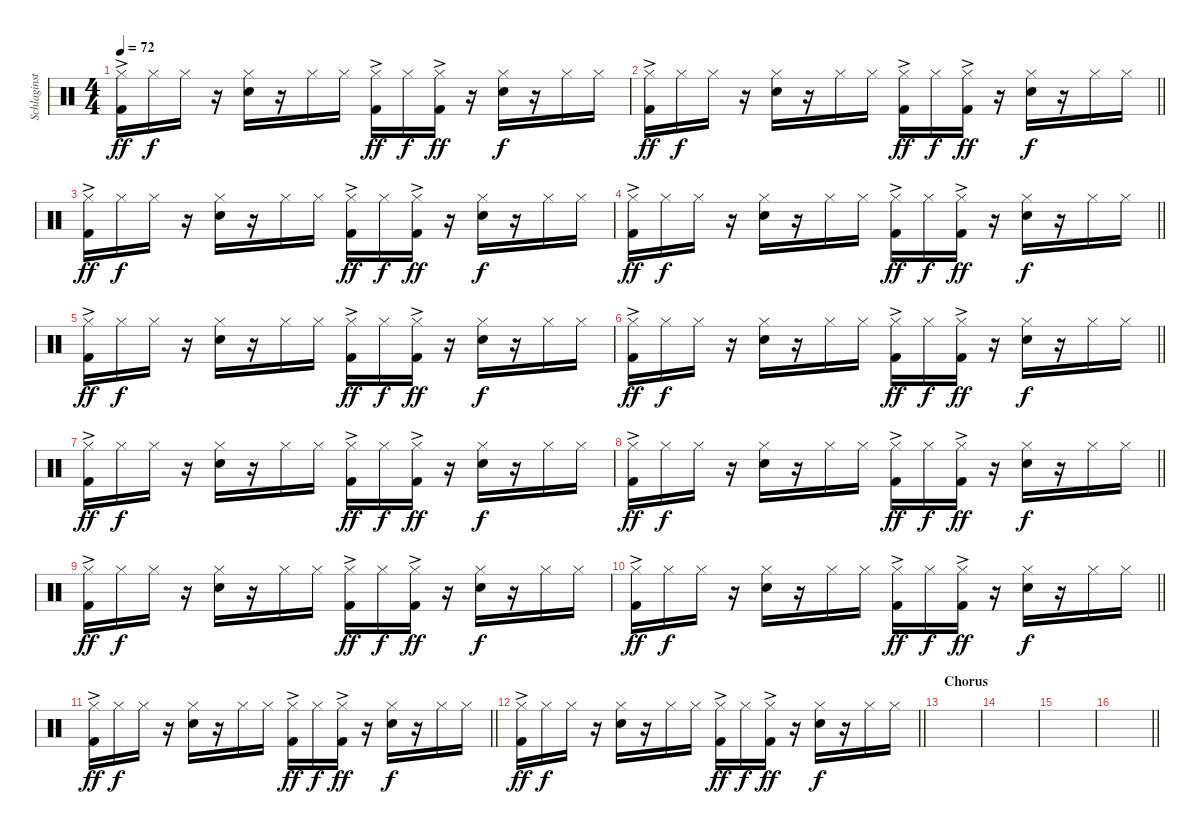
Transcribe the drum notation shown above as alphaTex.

\track ("Schlaginstrumente - Auswahl" "Schlaginst") {instrument percussion}
\staff {score}
\articulation defaults
\ts (4 4)
\tempo 72
\clef neutral
\ks c
("Hi-Hat (closed)" "Kick (hit) 2"{ac}).16{dy ff} "Hi-Hat (closed)".16{dy f} "Hi-Hat (closed)".16 r.16 ("Snare (hit) 2" "Hi-Hat (closed)").16 r.16 "Hi-Hat (closed)".16 "Hi-Hat (closed)".16 ("Hi-Hat (closed)" "Kick (hit) 2"{ac}).16{dy ff} "Hi-Hat (closed)".16{dy f} ("Hi-Hat (closed)" "Kick (hit) 2"{ac}).16{dy ff} r.16 ("Snare (hit) 2" "Hi-Hat (closed)").16{dy f} r.16 "Hi-Hat (closed)".16 "Hi-Hat (closed)".16 |
\barLineRight lightlight
("Hi-Hat (closed)" "Kick (hit) 2"{ac}).16{dy ff} "Hi-Hat (closed)".16{dy f} "Hi-Hat (closed)".16 r.16 ("Snare (hit) 2" "Hi-Hat (closed)").16 r.16 "Hi-Hat (closed)".16 "Hi-Hat (closed)".16 ("Hi-Hat (closed)" "Kick (hit) 2"{ac}).16{dy ff} "Hi-Hat (closed)".16{dy f} ("Hi-Hat (closed)" "Kick (hit) 2"{ac}).16{dy ff} r.16 ("Snare (hit) 2" "Hi-Hat (closed)").16{dy f} r.16 "Hi-Hat (closed)".16 "Hi-Hat (closed)".16 |
("Hi-Hat (closed)" "Kick (hit) 2"{ac}).16{dy ff} "Hi-Hat (closed)".16{dy f} "Hi-Hat (closed)".16 r.16 ("Snare (hit) 2" "Hi-Hat (closed)").16 r.16 "Hi-Hat (closed)".16 "Hi-Hat (closed)".16 ("Hi-Hat (closed)" "Kick (hit) 2"{ac}).16{dy ff} "Hi-Hat (closed)".16{dy f} ("Hi-Hat (closed)" "Kick (hit) 2"{ac}).16{dy ff} r.16 ("Snare (hit) 2" "Hi-Hat (closed)").16{dy f} r.16 "Hi-Hat (closed)".16 "Hi-Hat (closed)".16 |
\barLineRight lightlight
("Hi-Hat (closed)" "Kick (hit) 2"{ac}).16{dy ff} "Hi-Hat (closed)".16{dy f} "Hi-Hat (closed)".16 r.16 ("Snare (hit) 2" "Hi-Hat (closed)").16 r.16 "Hi-Hat (closed)".16 "Hi-Hat (closed)".16 ("Hi-Hat (closed)" "Kick (hit) 2"{ac}).16{dy ff} "Hi-Hat (closed)".16{dy f} ("Hi-Hat (closed)" "Kick (hit) 2"{ac}).16{dy ff} r.16 ("Snare (hit) 2" "Hi-Hat (closed)").16{dy f} r.16 "Hi-Hat (closed)".16 "Hi-Hat (closed)".16 |
("Hi-Hat (closed)" "Kick (hit) 2"{ac}).16{dy ff} "Hi-Hat (closed)".16{dy f} "Hi-Hat (closed)".16 r.16 ("Snare (hit) 2" "Hi-Hat (closed)").16 r.16 "Hi-Hat (closed)".16 "Hi-Hat (closed)".16 ("Hi-Hat (closed)" "Kick (hit) 2"{ac}).16{dy ff} "Hi-Hat (closed)".16{dy f} ("Hi-Hat (closed)" "Kick (hit) 2"{ac}).16{dy ff} r.16 ("Snare (hit) 2" "Hi-Hat (closed)").16{dy f} r.16 "Hi-Hat (closed)".16 "Hi-Hat (closed)".16 |
\barLineRight lightlight
("Hi-Hat (closed)" "Kick (hit) 2"{ac}).16{dy ff} "Hi-Hat (closed)".16{dy f} "Hi-Hat (closed)".16 r.16 ("Snare (hit) 2" "Hi-Hat (closed)").16 r.16 "Hi-Hat (closed)".16 "Hi-Hat (closed)".16 ("Hi-Hat (closed)" "Kick (hit) 2"{ac}).16{dy ff} "Hi-Hat (closed)".16{dy f} ("Hi-Hat (closed)" "Kick (hit) 2"{ac}).16{dy ff} r.16 ("Snare (hit) 2" "Hi-Hat (closed)").16{dy f} r.16 "Hi-Hat (closed)".16 "Hi-Hat (closed)".16 |
("Hi-Hat (closed)" "Kick (hit) 2"{ac}).16{dy ff} "Hi-Hat (closed)".16{dy f} "Hi-Hat (closed)".16 r.16 ("Snare (hit) 2" "Hi-Hat (closed)").16 r.16 "Hi-Hat (closed)".16 "Hi-Hat (closed)".16 ("Hi-Hat (closed)" "Kick (hit) 2"{ac}).16{dy ff} "Hi-Hat (closed)".16{dy f} ("Hi-Hat (closed)" "Kick (hit) 2"{ac}).16{dy ff} r.16 ("Snare (hit) 2" "Hi-Hat (closed)").16{dy f} r.16 "Hi-Hat (closed)".16 "Hi-Hat (closed)".16 |
\barLineRight lightlight
("Hi-Hat (closed)" "Kick (hit) 2"{ac}).16{dy ff} "Hi-Hat (closed)".16{dy f} "Hi-Hat (closed)".16 r.16 ("Snare (hit) 2" "Hi-Hat (closed)").16 r.16 "Hi-Hat (closed)".16 "Hi-Hat (closed)".16 ("Hi-Hat (closed)" "Kick (hit) 2"{ac}).16{dy ff} "Hi-Hat (closed)".16{dy f} ("Hi-Hat (closed)" "Kick (hit) 2"{ac}).16{dy ff} r.16 ("Snare (hit) 2" "Hi-Hat (closed)").16{dy f} r.16 "Hi-Hat (closed)".16 "Hi-Hat (closed)".16 |
("Hi-Hat (closed)" "Kick (hit) 2"{ac}).16{dy ff} "Hi-Hat (closed)".16{dy f} "Hi-Hat (closed)".16 r.16 ("Snare (hit) 2" "Hi-Hat (closed)").16 r.16 "Hi-Hat (closed)".16 "Hi-Hat (closed)".16 ("Hi-Hat (closed)" "Kick (hit) 2"{ac}).16{dy ff} "Hi-Hat (closed)".16{dy f} ("Hi-Hat (closed)" "Kick (hit) 2"{ac}).16{dy ff} r.16 ("Snare (hit) 2" "Hi-Hat (closed)").16{dy f} r.16 "Hi-Hat (closed)".16 "Hi-Hat (closed)".16 |
\barLineRight lightlight
("Hi-Hat (closed)" "Kick (hit) 2"{ac}).16{dy ff} "Hi-Hat (closed)".16{dy f} "Hi-Hat (closed)".16 r.16 ("Snare (hit) 2" "Hi-Hat (closed)").16 r.16 "Hi-Hat (closed)".16 "Hi-Hat (closed)".16 ("Hi-Hat (closed)" "Kick (hit) 2"{ac}).16{dy ff} "Hi-Hat (closed)".16{dy f} ("Hi-Hat (closed)" "Kick (hit) 2"{ac}).16{dy ff} r.16 ("Snare (hit) 2" "Hi-Hat (closed)").16{dy f} r.16 "Hi-Hat (closed)".16 "Hi-Hat (closed)".16 |
\barLineRight lightlight
("Hi-Hat (closed)" "Kick (hit) 2"{ac}).16{dy ff} "Hi-Hat (closed)".16{dy f} "Hi-Hat (closed)".16 r.16 ("Snare (hit) 2" "Hi-Hat (closed)").16 r.16 "Hi-Hat (closed)".16 "Hi-Hat (closed)".16 ("Hi-Hat (closed)" "Kick (hit) 2"{ac}).16{dy ff} "Hi-Hat (closed)".16{dy f} ("Hi-Hat (closed)" "Kick (hit) 2"{ac}).16{dy ff} r.16 ("Snare (hit) 2" "Hi-Hat (closed)").16{dy f} r.16 "Hi-Hat (closed)".16 "Hi-Hat (closed)".16 |
\barLineRight lightlight
("Hi-Hat (closed)" "Kick (hit) 2"{ac}).16{dy ff} "Hi-Hat (closed)".16{dy f} "Hi-Hat (closed)".16 r.16 ("Snare (hit) 2" "Hi-Hat (closed)").16 r.16 "Hi-Hat (closed)".16 "Hi-Hat (closed)".16 ("Hi-Hat (closed)" "Kick (hit) 2"{ac}).16{dy ff} "Hi-Hat (closed)".16{dy f} ("Hi-Hat (closed)" "Kick (hit) 2"{ac}).16{dy ff} r.16 ("Snare (hit) 2" "Hi-Hat (closed)").16{dy f} r.16 "Hi-Hat (closed)".16 "Hi-Hat (closed)".16 |
\section ("" "Chorus")
|
|
|
\barLineRight lightlight
